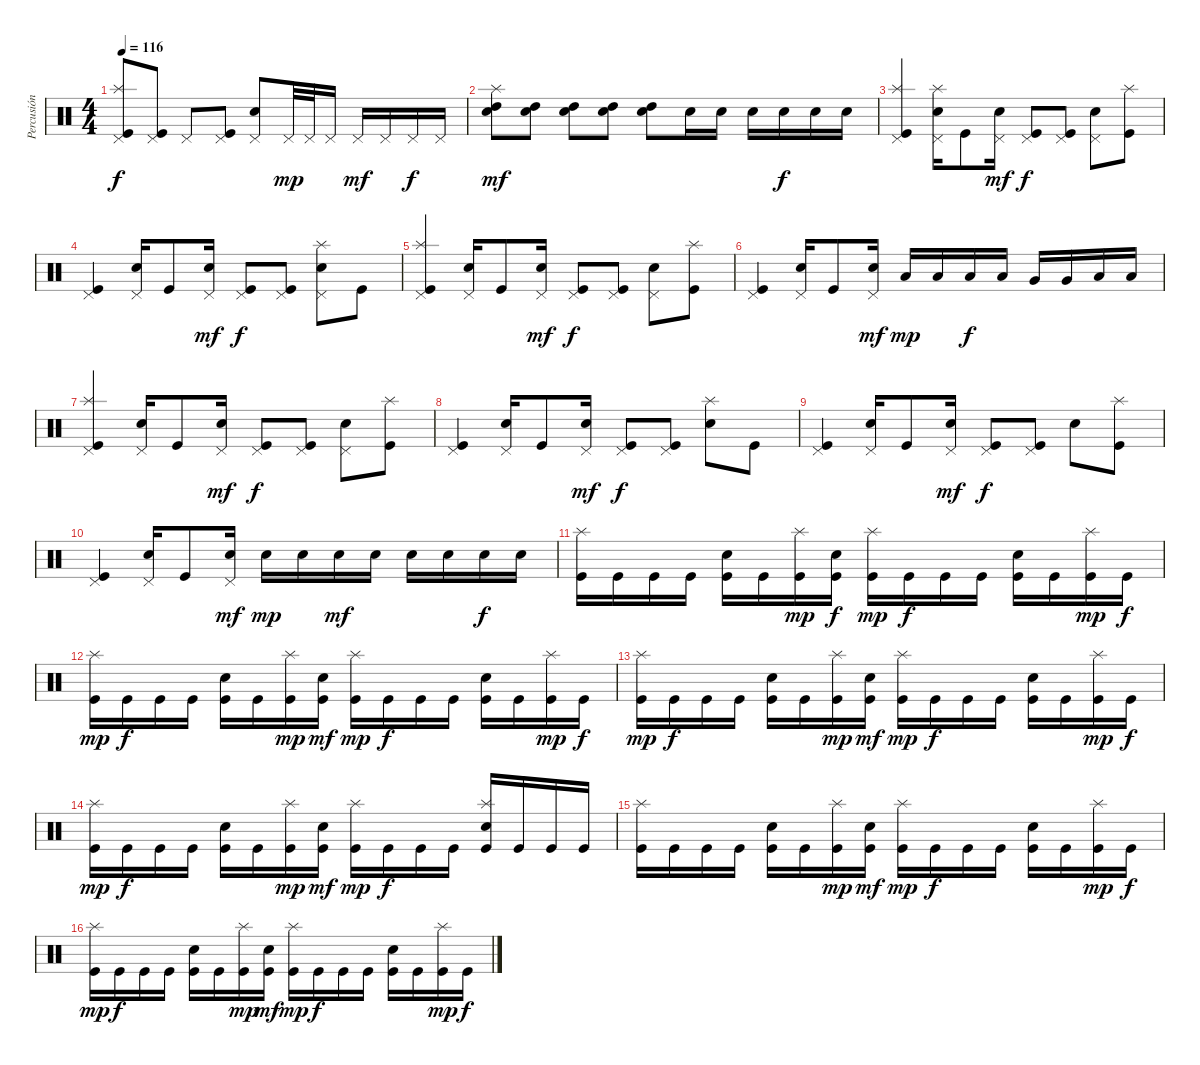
\track ("Percusión" "Percusión") {instrument percussion}
\staff {score}
\articulation defaults
\ts (4 4)
\tempo 116
\clef neutral
\ks c
("Kick (hit)" "Splash (hit)" "Pedal Hi-Hat (hit)").8{dy f} ("Kick (hit)" "Pedal Hi-Hat (hit)").8 "Pedal Hi-Hat (hit)".8 ("Kick (hit)" "Pedal Hi-Hat (hit)").8 ("Snare (hit) 2" "Pedal Hi-Hat (hit)").8 "Pedal Hi-Hat (hit)".32{dy mp} "Pedal Hi-Hat (hit)".32 "Pedal Hi-Hat (hit)".16 "Pedal Hi-Hat (hit)".16{dy mf} "Pedal Hi-Hat (hit)".16 "Pedal Hi-Hat (hit)".16{dy f} "Pedal Hi-Hat (hit)".16 |
("High Tom (hit)" "Snare (hit) 2" "Splash (hit)").8{dy mf} ("High Tom (hit)" "Snare (hit) 2").8 ("High Tom (hit)" "Snare (hit) 2").8 ("High Tom (hit)" "Snare (hit) 2").8 ("High Tom (hit)" "Snare (hit) 2").8 "Snare (hit) 2".16 "Snare (hit) 2".16 "Snare (hit) 2".16 "Snare (hit) 2".16{dy f} "Snare (hit) 2".16 "Snare (hit) 2".16 |
("Kick (hit)" "Splash (hit)" "Pedal Hi-Hat (hit)").4 ("Snare (hit) 2" "Splash (hit)" "Pedal Hi-Hat (hit)").16 "Kick (hit)".8 ("Snare (hit) 2" "Pedal Hi-Hat (hit)").16{dy mf} ("Kick (hit)" "Pedal Hi-Hat (hit)").8{dy f} ("Kick (hit)" "Pedal Hi-Hat (hit)").8 ("Snare (hit) 2" "Pedal Hi-Hat (hit)").8 ("Kick (hit)" "Splash (hit)").8 |
("Kick (hit)" "Pedal Hi-Hat (hit)").4 ("Snare (hit) 2" "Pedal Hi-Hat (hit)").16 "Kick (hit)".8 ("Snare (hit) 2" "Pedal Hi-Hat (hit)").16{dy mf} ("Kick (hit)" "Pedal Hi-Hat (hit)").8{dy f} ("Kick (hit)" "Pedal Hi-Hat (hit)").8 ("Snare (hit) 2" "Splash (hit)" "Pedal Hi-Hat (hit)").8 "Kick (hit)".8 |
("Kick (hit)" "Splash (hit)" "Pedal Hi-Hat (hit)").4 ("Snare (hit) 2" "Pedal Hi-Hat (hit)").16 "Kick (hit)".8 ("Snare (hit) 2" "Pedal Hi-Hat (hit)").16{dy mf} ("Kick (hit)" "Pedal Hi-Hat (hit)").8{dy f} ("Kick (hit)" "Pedal Hi-Hat (hit)").8 ("Snare (hit) 2" "Pedal Hi-Hat (hit)").8 ("Kick (hit)" "Splash (hit)").8 |
("Kick (hit)" "Pedal Hi-Hat (hit)").4 ("Snare (hit) 2" "Pedal Hi-Hat (hit)").16 "Kick (hit)".8 ("Snare (hit) 2" "Pedal Hi-Hat (hit)").16{dy mf} "Low Tom (hit)".16{dy mp} "Low Tom (hit)".16 "Low Tom (hit)".16{dy f} "Low Tom (hit)".16 "Very Low Tom (hit)".16 "Very Low Tom (hit)".16 "Low Floor Tom (hit)".16 "Low Floor Tom (hit)".16 |
("Kick (hit)" "Splash (hit)" "Pedal Hi-Hat (hit)").4 ("Snare (hit) 2" "Pedal Hi-Hat (hit)").16 "Kick (hit)".8 ("Snare (hit) 2" "Pedal Hi-Hat (hit)").16{dy mf} ("Kick (hit)" "Pedal Hi-Hat (hit)").8{dy f} ("Kick (hit)" "Pedal Hi-Hat (hit)").8 ("Snare (hit) 2" "Pedal Hi-Hat (hit)").8 ("Kick (hit)" "Splash (hit)").8 |
("Kick (hit)" "Pedal Hi-Hat (hit)").4 ("Snare (hit) 2" "Pedal Hi-Hat (hit)").16 "Kick (hit)".8 ("Snare (hit) 2" "Pedal Hi-Hat (hit)").16{dy mf} ("Kick (hit)" "Pedal Hi-Hat (hit)").8{dy f} ("Kick (hit)" "Pedal Hi-Hat (hit)").8 ("Snare (hit) 2" "Splash (hit)").8 "Kick (hit)".8 |
("Kick (hit)" "Pedal Hi-Hat (hit)").4 ("Snare (hit) 2" "Pedal Hi-Hat (hit)").16 "Kick (hit)".8 ("Snare (hit) 2" "Pedal Hi-Hat (hit)").16{dy mf} ("Kick (hit)" "Pedal Hi-Hat (hit)").8{dy f} ("Kick (hit)" "Pedal Hi-Hat (hit)").8 "Snare (hit) 2".8 ("Kick (hit)" "Splash (hit)").8 |
("Kick (hit)" "Pedal Hi-Hat (hit)").4 ("Snare (hit) 2" "Pedal Hi-Hat (hit)").16 "Kick (hit)".8 ("Snare (hit) 2" "Pedal Hi-Hat (hit)").16{dy mf} "Snare (hit) 2".16{dy mp} "Snare (hit) 2".16 "Snare (hit) 2".16{dy mf} "Snare (hit) 2".16 "Snare (hit) 2".16 "Snare (hit) 2".16 "Snare (hit) 2".16{dy f} "Snare (hit) 2".16 |
("Kick (hit)" "Splash (hit)").16 "Kick (hit)".16 "Kick (hit)".16 "Kick (hit)".16 ("Kick (hit)" "Snare (hit) 2").16 "Kick (hit)".16 ("Kick (hit)" "Splash (hit)").16{dy mp} ("Kick (hit)" "Snare (hit) 2").16{dy f} ("Kick (hit)" "Splash (hit)").16{dy mp} "Kick (hit)".16{dy f} "Kick (hit)".16 "Kick (hit)".16 ("Kick (hit)" "Snare (hit) 2").16 "Kick (hit)".16 ("Kick (hit)" "Splash (hit)").16{dy mp} "Kick (hit)".16{dy f} |
("Kick (hit)" "Splash (hit)").16{dy mp} "Kick (hit)".16{dy f} "Kick (hit)".16 "Kick (hit)".16 ("Kick (hit)" "Snare (hit) 2").16 "Kick (hit)".16 ("Kick (hit)" "Splash (hit)").16{dy mp} ("Kick (hit)" "Snare (hit) 2").16{dy mf} ("Kick (hit)" "Splash (hit)").16{dy mp} "Kick (hit)".16{dy f} "Kick (hit)".16 "Kick (hit)".16 ("Kick (hit)" "Snare (hit) 2").16 "Kick (hit)".16 ("Kick (hit)" "Splash (hit)").16{dy mp} "Kick (hit)".16{dy f} |
("Kick (hit)" "Splash (hit)").16{dy mp} "Kick (hit)".16{dy f} "Kick (hit)".16 "Kick (hit)".16 ("Kick (hit)" "Snare (hit) 2").16 "Kick (hit)".16 ("Kick (hit)" "Splash (hit)").16{dy mp} ("Kick (hit)" "Snare (hit) 2").16{dy mf} ("Kick (hit)" "Splash (hit)").16{dy mp} "Kick (hit)".16{dy f} "Kick (hit)".16 "Kick (hit)".16 ("Kick (hit)" "Snare (hit) 2").16 "Kick (hit)".16 ("Kick (hit)" "Splash (hit)").16{dy mp} "Kick (hit)".16{dy f} |
("Kick (hit)" "Splash (hit)").16{dy mp} "Kick (hit)".16{dy f} "Kick (hit)".16 "Kick (hit)".16 ("Kick (hit)" "Snare (hit) 2").16 "Kick (hit)".16 ("Kick (hit)" "Splash (hit)").16{dy mp} ("Kick (hit)" "Snare (hit) 2").16{dy mf} ("Kick (hit)" "Splash (hit)").16{dy mp} "Kick (hit)".16{dy f} "Kick (hit)".16 "Kick (hit)".16 ("Kick (hit)" "Snare (hit) 2" "Splash (hit)").16 "Kick (hit)".16 "Kick (hit)".16 "Kick (hit)".16 |
("Kick (hit)" "Splash (hit)").16 "Kick (hit)".16 "Kick (hit)".16 "Kick (hit)".16 ("Kick (hit)" "Snare (hit) 2").16 "Kick (hit)".16 ("Kick (hit)" "Splash (hit)").16{dy mp} ("Kick (hit)" "Snare (hit) 2").16{dy mf} ("Kick (hit)" "Splash (hit)").16{dy mp} "Kick (hit)".16{dy f} "Kick (hit)".16 "Kick (hit)".16 ("Kick (hit)" "Snare (hit) 2").16 "Kick (hit)".16 ("Kick (hit)" "Splash (hit)").16{dy mp} "Kick (hit)".16{dy f} |
("Kick (hit)" "Splash (hit)").16{dy mp} "Kick (hit)".16{dy f} "Kick (hit)".16 "Kick (hit)".16 ("Kick (hit)" "Snare (hit) 2").16 "Kick (hit)".16 ("Kick (hit)" "Splash (hit)").16{dy mp} ("Kick (hit)" "Snare (hit) 2").16{dy mf} ("Kick (hit)" "Splash (hit)").16{dy mp} "Kick (hit)".16{dy f} "Kick (hit)".16 "Kick (hit)".16 ("Kick (hit)" "Snare (hit) 2").16 "Kick (hit)".16 ("Kick (hit)" "Splash (hit)").16{dy mp} "Kick (hit)".16{dy f}
